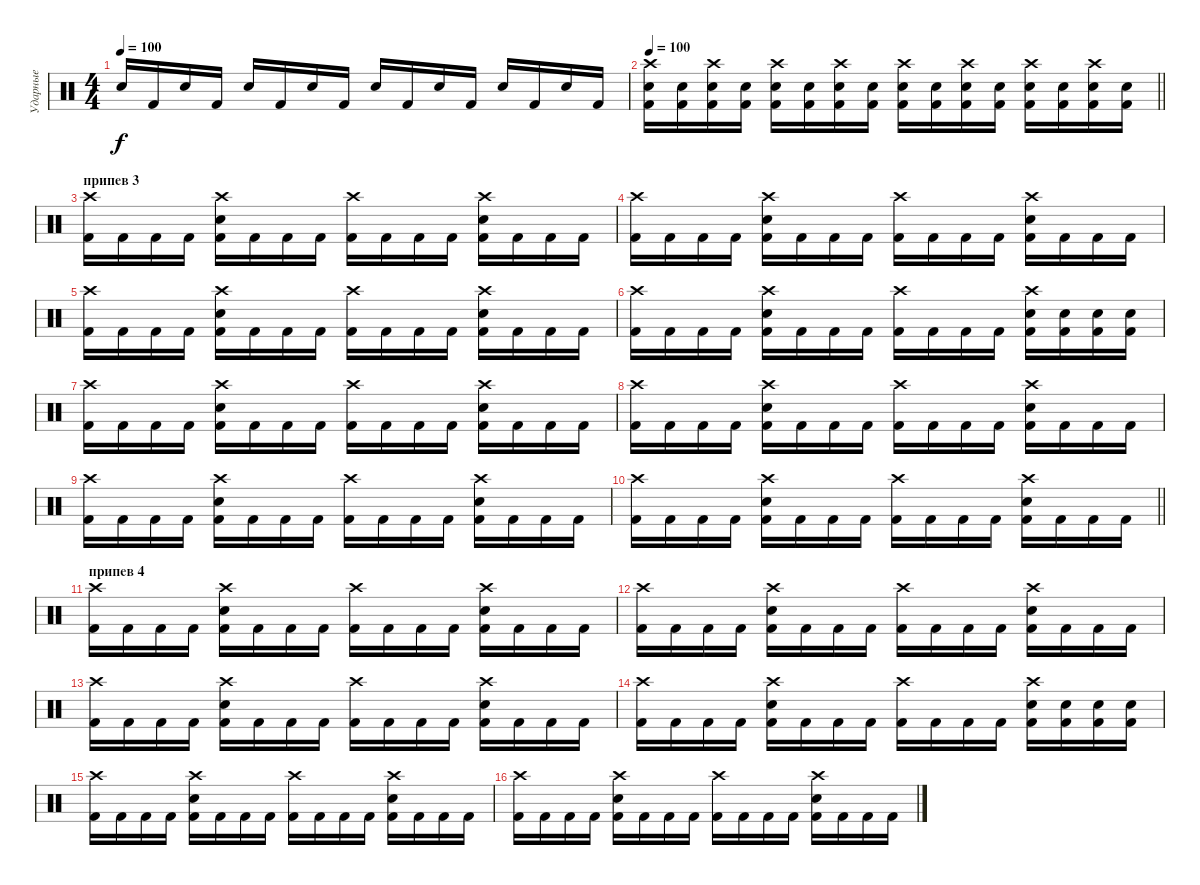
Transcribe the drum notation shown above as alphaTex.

\track ("Ударные" "Ударные") {instrument percussion}
\staff {score}
\articulation defaults
\ts (4 4)
\tempo 100
\clef neutral
\ks c "Electric Snare (hit)".16{dy f} "Kick (hit) 2".16 "Electric Snare (hit)".16 "Kick (hit) 2".16 "Electric Snare (hit)".16 "Kick (hit) 2".16 "Electric Snare (hit)".16 "Kick (hit) 2".16 "Electric Snare (hit)".16 "Kick (hit) 2".16 "Electric Snare (hit)".16 "Kick (hit) 2".16 "Electric Snare (hit)".16 "Kick (hit) 2".16 "Electric Snare (hit)".16 "Kick (hit) 2".16
|
\tempo 100
\barLineRight lightlight
("Crash high (hit)" "Electric Snare (hit)" "Kick (hit) 2").16 ("Electric Snare (hit)" "Kick (hit) 2").16 ("Crash high (hit)" "Electric Snare (hit)" "Kick (hit) 2").16 ("Electric Snare (hit)" "Kick (hit) 2").16 ("Crash high (hit)" "Electric Snare (hit)" "Kick (hit) 2").16 ("Electric Snare (hit)" "Kick (hit) 2").16 ("Crash high (hit)" "Electric Snare (hit)" "Kick (hit) 2").16 ("Electric Snare (hit)" "Kick (hit) 2").16 ("Crash high (hit)" "Electric Snare (hit)" "Kick (hit) 2").16 ("Electric Snare (hit)" "Kick (hit) 2").16 ("Crash high (hit)" "Electric Snare (hit)" "Kick (hit) 2").16 ("Electric Snare (hit)" "Kick (hit) 2").16 ("Crash high (hit)" "Electric Snare (hit)" "Kick (hit) 2").16 ("Electric Snare (hit)" "Kick (hit) 2").16 ("Crash high (hit)" "Electric Snare (hit)" "Kick (hit) 2").16 ("Electric Snare (hit)" "Kick (hit) 2").16 |
\section ("" "припев 3")
("Crash high (hit)" "Kick (hit) 2").16 "Kick (hit) 2".16 "Kick (hit) 2".16 "Kick (hit) 2".16 ("Crash high (hit)" "Electric Snare (hit)" "Kick (hit) 2").16 "Kick (hit) 2".16 "Kick (hit) 2".16 "Kick (hit) 2".16 ("Crash high (hit)" "Kick (hit) 2").16 "Kick (hit) 2".16 "Kick (hit) 2".16 "Kick (hit) 2".16 ("Crash high (hit)" "Electric Snare (hit)" "Kick (hit) 2").16 "Kick (hit) 2".16 "Kick (hit) 2".16 "Kick (hit) 2".16 |
("Crash high (hit)" "Kick (hit) 2").16 "Kick (hit) 2".16 "Kick (hit) 2".16 "Kick (hit) 2".16 ("Crash high (hit)" "Electric Snare (hit)" "Kick (hit) 2").16 "Kick (hit) 2".16 "Kick (hit) 2".16 "Kick (hit) 2".16 ("Crash high (hit)" "Kick (hit) 2").16 "Kick (hit) 2".16 "Kick (hit) 2".16 "Kick (hit) 2".16 ("Crash high (hit)" "Electric Snare (hit)" "Kick (hit) 2").16 "Kick (hit) 2".16 "Kick (hit) 2".16 "Kick (hit) 2".16 |
("Crash high (hit)" "Kick (hit) 2").16 "Kick (hit) 2".16 "Kick (hit) 2".16 "Kick (hit) 2".16 ("Crash high (hit)" "Electric Snare (hit)" "Kick (hit) 2").16 "Kick (hit) 2".16 "Kick (hit) 2".16 "Kick (hit) 2".16 ("Crash high (hit)" "Kick (hit) 2").16 "Kick (hit) 2".16 "Kick (hit) 2".16 "Kick (hit) 2".16 ("Crash high (hit)" "Electric Snare (hit)" "Kick (hit) 2").16 "Kick (hit) 2".16 "Kick (hit) 2".16 "Kick (hit) 2".16 |
("Crash high (hit)" "Kick (hit) 2").16 "Kick (hit) 2".16 "Kick (hit) 2".16 "Kick (hit) 2".16 ("Crash high (hit)" "Electric Snare (hit)" "Kick (hit) 2").16 "Kick (hit) 2".16 "Kick (hit) 2".16 "Kick (hit) 2".16 ("Crash high (hit)" "Kick (hit) 2").16 "Kick (hit) 2".16 "Kick (hit) 2".16 "Kick (hit) 2".16 ("Crash high (hit)" "Electric Snare (hit)" "Kick (hit) 2").16 ("Electric Snare (hit)" "Kick (hit) 2").16 ("Electric Snare (hit)" "Kick (hit) 2").16 ("Electric Snare (hit)" "Kick (hit) 2").16 |
("Crash high (hit)" "Kick (hit) 2").16 "Kick (hit) 2".16 "Kick (hit) 2".16 "Kick (hit) 2".16 ("Crash high (hit)" "Electric Snare (hit)" "Kick (hit) 2").16 "Kick (hit) 2".16 "Kick (hit) 2".16 "Kick (hit) 2".16 ("Crash high (hit)" "Kick (hit) 2").16 "Kick (hit) 2".16 "Kick (hit) 2".16 "Kick (hit) 2".16 ("Crash high (hit)" "Electric Snare (hit)" "Kick (hit) 2").16 "Kick (hit) 2".16 "Kick (hit) 2".16 "Kick (hit) 2".16 |
("Crash high (hit)" "Kick (hit) 2").16 "Kick (hit) 2".16 "Kick (hit) 2".16 "Kick (hit) 2".16 ("Crash high (hit)" "Electric Snare (hit)" "Kick (hit) 2").16 "Kick (hit) 2".16 "Kick (hit) 2".16 "Kick (hit) 2".16 ("Crash high (hit)" "Kick (hit) 2").16 "Kick (hit) 2".16 "Kick (hit) 2".16 "Kick (hit) 2".16 ("Crash high (hit)" "Electric Snare (hit)" "Kick (hit) 2").16 "Kick (hit) 2".16 "Kick (hit) 2".16 "Kick (hit) 2".16 |
("Crash high (hit)" "Kick (hit) 2").16 "Kick (hit) 2".16 "Kick (hit) 2".16 "Kick (hit) 2".16 ("Crash high (hit)" "Electric Snare (hit)" "Kick (hit) 2").16 "Kick (hit) 2".16 "Kick (hit) 2".16 "Kick (hit) 2".16 ("Crash high (hit)" "Kick (hit) 2").16 "Kick (hit) 2".16 "Kick (hit) 2".16 "Kick (hit) 2".16 ("Crash high (hit)" "Electric Snare (hit)" "Kick (hit) 2").16 "Kick (hit) 2".16 "Kick (hit) 2".16 "Kick (hit) 2".16 |
\barLineRight lightlight
("Crash high (hit)" "Kick (hit) 2").16 "Kick (hit) 2".16 "Kick (hit) 2".16 "Kick (hit) 2".16 ("Crash high (hit)" "Electric Snare (hit)" "Kick (hit) 2").16 "Kick (hit) 2".16 "Kick (hit) 2".16 "Kick (hit) 2".16 ("Crash high (hit)" "Kick (hit) 2").16 "Kick (hit) 2".16 "Kick (hit) 2".16 "Kick (hit) 2".16 ("Crash high (hit)" "Electric Snare (hit)" "Kick (hit) 2").16 "Kick (hit) 2".16 "Kick (hit) 2".16 "Kick (hit) 2".16 |
\section ("" "припев 4")
("Crash high (hit)" "Kick (hit) 2").16 "Kick (hit) 2".16 "Kick (hit) 2".16 "Kick (hit) 2".16 ("Crash high (hit)" "Electric Snare (hit)" "Kick (hit) 2").16 "Kick (hit) 2".16 "Kick (hit) 2".16 "Kick (hit) 2".16 ("Crash high (hit)" "Kick (hit) 2").16 "Kick (hit) 2".16 "Kick (hit) 2".16 "Kick (hit) 2".16 ("Crash high (hit)" "Electric Snare (hit)" "Kick (hit) 2").16 "Kick (hit) 2".16 "Kick (hit) 2".16 "Kick (hit) 2".16 |
("Crash high (hit)" "Kick (hit) 2").16 "Kick (hit) 2".16 "Kick (hit) 2".16 "Kick (hit) 2".16 ("Crash high (hit)" "Electric Snare (hit)" "Kick (hit) 2").16 "Kick (hit) 2".16 "Kick (hit) 2".16 "Kick (hit) 2".16 ("Crash high (hit)" "Kick (hit) 2").16 "Kick (hit) 2".16 "Kick (hit) 2".16 "Kick (hit) 2".16 ("Crash high (hit)" "Electric Snare (hit)" "Kick (hit) 2").16 "Kick (hit) 2".16 "Kick (hit) 2".16 "Kick (hit) 2".16 |
("Crash high (hit)" "Kick (hit) 2").16 "Kick (hit) 2".16 "Kick (hit) 2".16 "Kick (hit) 2".16 ("Crash high (hit)" "Electric Snare (hit)" "Kick (hit) 2").16 "Kick (hit) 2".16 "Kick (hit) 2".16 "Kick (hit) 2".16 ("Crash high (hit)" "Kick (hit) 2").16 "Kick (hit) 2".16 "Kick (hit) 2".16 "Kick (hit) 2".16 ("Crash high (hit)" "Electric Snare (hit)" "Kick (hit) 2").16 "Kick (hit) 2".16 "Kick (hit) 2".16 "Kick (hit) 2".16 |
("Crash high (hit)" "Kick (hit) 2").16 "Kick (hit) 2".16 "Kick (hit) 2".16 "Kick (hit) 2".16 ("Crash high (hit)" "Electric Snare (hit)" "Kick (hit) 2").16 "Kick (hit) 2".16 "Kick (hit) 2".16 "Kick (hit) 2".16 ("Crash high (hit)" "Kick (hit) 2").16 "Kick (hit) 2".16 "Kick (hit) 2".16 "Kick (hit) 2".16 ("Crash high (hit)" "Electric Snare (hit)" "Kick (hit) 2").16 ("Electric Snare (hit)" "Kick (hit) 2").16 ("Electric Snare (hit)" "Kick (hit) 2").16 ("Electric Snare (hit)" "Kick (hit) 2").16 |
("Crash high (hit)" "Kick (hit) 2").16 "Kick (hit) 2".16 "Kick (hit) 2".16 "Kick (hit) 2".16 ("Crash high (hit)" "Electric Snare (hit)" "Kick (hit) 2").16 "Kick (hit) 2".16 "Kick (hit) 2".16 "Kick (hit) 2".16 ("Crash high (hit)" "Kick (hit) 2").16 "Kick (hit) 2".16 "Kick (hit) 2".16 "Kick (hit) 2".16 ("Crash high (hit)" "Electric Snare (hit)" "Kick (hit) 2").16 "Kick (hit) 2".16 "Kick (hit) 2".16 "Kick (hit) 2".16 |
("Crash high (hit)" "Kick (hit) 2").16 "Kick (hit) 2".16 "Kick (hit) 2".16 "Kick (hit) 2".16 ("Crash high (hit)" "Electric Snare (hit)" "Kick (hit) 2").16 "Kick (hit) 2".16 "Kick (hit) 2".16 "Kick (hit) 2".16 ("Crash high (hit)" "Kick (hit) 2").16 "Kick (hit) 2".16 "Kick (hit) 2".16 "Kick (hit) 2".16 ("Crash high (hit)" "Electric Snare (hit)" "Kick (hit) 2").16 "Kick (hit) 2".16 "Kick (hit) 2".16 "Kick (hit) 2".16
